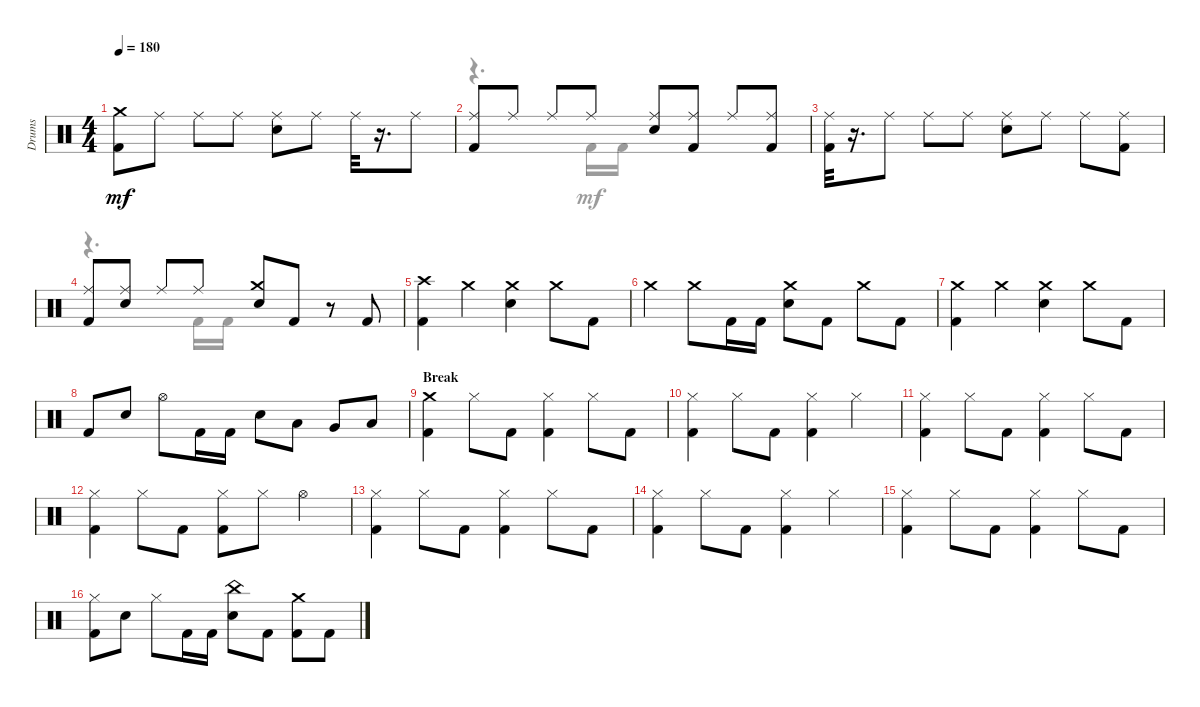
\track ("Drums" "Drums") {instrument percussion}
\staff {score}
\articulation defaults
\voice
\ts (4 4)
\tempo 180
\clef neutral
\ks aminor
("Crash medium (hit)" "Kick (hit) 2").8{dy mf} "Ride (middle)".8 "Ride (middle)".8 "Ride (middle)".8 ("Snare (hit) 2" "Ride (middle)").8 "Ride (middle)".8 "Ride (middle)".32 r.16{d} "Ride (middle)".8 |
("Kick (hit) 2" "Ride (middle)").8 "Ride (middle)".8 "Ride (middle)".8 "Ride (middle)".8 ("Snare (hit) 2" "Ride (middle)").8 ("Kick (hit) 2" "Ride (middle)").8 "Ride (middle)".8 ("Ride (middle)" "Kick (hit) 2").8 |
("Ride (middle)" "Kick (hit) 2").32 r.16{d} "Ride (middle)".8 "Ride (middle)".8 "Ride (middle)".8 ("Ride (middle)" "Snare (hit) 2").8 "Ride (middle)".8 "Ride (middle)".8 ("Ride (middle)" "Kick (hit) 2").8 |
("Kick (hit) 2" "Ride (middle)").8 ("Snare (hit) 2" "Ride (middle)").8 "Ride (middle)".8 "Ride (middle)".8 ("Snare (hit) 2" "Crash medium (hit)").8 "Kick (hit) 2".8 r.8 "Kick (hit) 2".8 |
("Crash high (hit)" "Kick (hit) 2").4 "Crash medium (hit)".4 ("Snare (hit) 2" "Crash medium (hit)").4 "Crash medium (hit)".8 "Kick (hit) 2".8 |
"Crash medium (hit)".4 "Crash medium (hit)".8 "Kick (hit) 2".16 "Kick (hit) 2".16 ("Snare (hit) 2" "Crash medium (hit)").8 "Kick (hit) 2".8 "Crash medium (hit)".8 "Kick (hit) 2".8 |
("Kick (hit) 2" "Crash medium (hit)").4 "Crash medium (hit)".4 ("Snare (hit) 2" "Crash medium (hit)").4 "Crash medium (hit)".8 "Kick (hit) 2".8 |
"Kick (hit) 2".8 "Snare (hit) 2".8 "Hi-Hat (open)".8 "Kick (hit) 2".16 "Kick (hit) 2".16 "Snare (hit) 2".8 "Low Tom (hit)".8 "Very Low Tom (hit)".8 "Low Floor Tom (hit)".8 |
\section ("" "Break")
("Crash medium (hit)" "Kick (hit) 2").4 "Hi-Hat (closed)".8 "Kick (hit) 2".8 ("Kick (hit) 2" "Hi-Hat (closed)").4 "Hi-Hat (closed)".8 "Kick (hit) 2".8 |
("Hi-Hat (closed)" "Kick (hit) 2").4 "Hi-Hat (closed)".8 "Kick (hit) 2".8 ("Hi-Hat (closed)" "Kick (hit) 2").4 "Hi-Hat (closed)".4 |
("Hi-Hat (closed)" "Kick (hit) 2").4 "Hi-Hat (closed)".8 "Kick (hit) 2".8 ("Hi-Hat (closed)" "Kick (hit) 2").4 "Hi-Hat (closed)".8 "Kick (hit) 2".8 |
("Hi-Hat (closed)" "Kick (hit) 2").4 "Hi-Hat (closed)".8 "Kick (hit) 2".8 ("Kick (hit) 2" "Hi-Hat (closed)").8 "Hi-Hat (closed)".8 "Hi-Hat (open)".4 |
("Kick (hit) 2" "Hi-Hat (closed)").4 "Hi-Hat (closed)".8 "Kick (hit) 2".8 ("Hi-Hat (closed)" "Kick (hit) 2").4 "Hi-Hat (closed)".8 "Kick (hit) 2".8 |
("Kick (hit) 2" "Hi-Hat (closed)").4 "Hi-Hat (closed)".8 "Kick (hit) 2".8 ("Hi-Hat (closed)" "Kick (hit) 2").4 "Hi-Hat (closed)".4 |
("Hi-Hat (closed)" "Kick (hit) 2").4 "Hi-Hat (closed)".8 "Kick (hit) 2".8 ("Kick (hit) 2" "Hi-Hat (closed)").4 "Hi-Hat (closed)".8 "Kick (hit) 2".8 |
("Kick (hit) 2" "Hi-Hat (closed)").8 "Snare (hit) 2".8 "Hi-Hat (closed)".8 "Kick (hit) 2".16 "Kick (hit) 2".16 ("Snare (hit) 2" "China (hit)").8 "Kick (hit) 2".8 ("Crash medium (hit)" "Kick (hit) 2").8 "Kick (hit) 2".8
\voice
\clef neutral
\ottava regular
\simile none
\ks aminor
|
r.4{d} "Kick (hit) 2".16 "Kick (hit) 2".16 |
|
r.4{d} "Kick (hit) 2".16 "Kick (hit) 2".16 |
|
|
|
|
|
|
|
|
|
|
|
